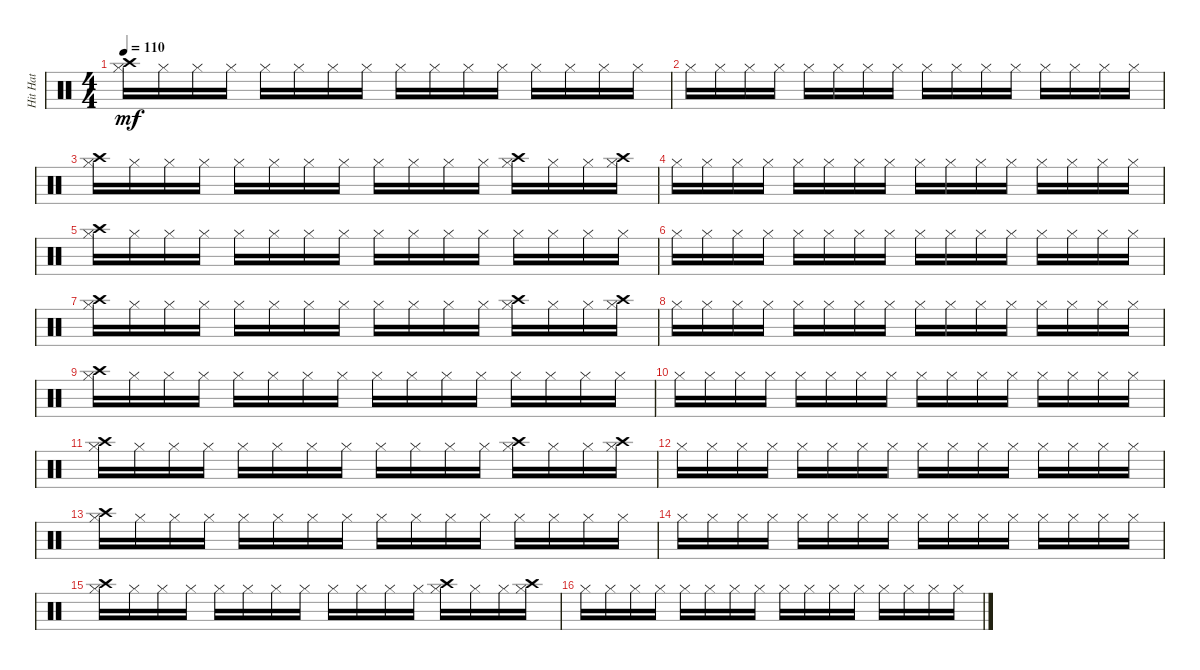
\track ("Hit Hat" "Hit Hat") {instrument percussion}
\staff {score}
\articulation defaults
\ts (4 4)
\tempo 110
\clef neutral
\ks c
("Hi-Hat (closed)" "Crash high (hit)").16{dy mf} "Hi-Hat (closed)".16 "Hi-Hat (closed)".16 "Hi-Hat (closed)".16 "Hi-Hat (closed)".16 "Hi-Hat (closed)".16 "Hi-Hat (closed)".16 "Hi-Hat (closed)".16 "Hi-Hat (closed)".16 "Hi-Hat (closed)".16 "Hi-Hat (closed)".16 "Hi-Hat (closed)".16 "Hi-Hat (closed)".16 "Hi-Hat (closed)".16 "Hi-Hat (closed)".16 "Hi-Hat (closed)".16 |
"Hi-Hat (closed)".16 "Hi-Hat (closed)".16 "Hi-Hat (closed)".16 "Hi-Hat (closed)".16 "Hi-Hat (closed)".16 "Hi-Hat (closed)".16 "Hi-Hat (closed)".16 "Hi-Hat (closed)".16 "Hi-Hat (closed)".16 "Hi-Hat (closed)".16 "Hi-Hat (closed)".16 "Hi-Hat (closed)".16 "Hi-Hat (closed)".16 "Hi-Hat (closed)".16 "Hi-Hat (closed)".16 "Hi-Hat (closed)".16 |
("Hi-Hat (closed)" "Crash high (hit)").16 "Hi-Hat (closed)".16 "Hi-Hat (closed)".16 "Hi-Hat (closed)".16 "Hi-Hat (closed)".16 "Hi-Hat (closed)".16 "Hi-Hat (closed)".16 "Hi-Hat (closed)".16 "Hi-Hat (closed)".16 "Hi-Hat (closed)".16 "Hi-Hat (closed)".16 "Hi-Hat (closed)".16 ("Hi-Hat (closed)" "Crash high (hit)").16 "Hi-Hat (closed)".16 "Hi-Hat (closed)".16 ("Hi-Hat (closed)" "Crash high (hit)").16 |
"Hi-Hat (closed)".16 "Hi-Hat (closed)".16 "Hi-Hat (closed)".16 "Hi-Hat (closed)".16 "Hi-Hat (closed)".16 "Hi-Hat (closed)".16 "Hi-Hat (closed)".16 "Hi-Hat (closed)".16 "Hi-Hat (closed)".16 "Hi-Hat (closed)".16 "Hi-Hat (closed)".16 "Hi-Hat (closed)".16 "Hi-Hat (closed)".16 "Hi-Hat (closed)".16 "Hi-Hat (closed)".16 "Hi-Hat (closed)".16 |
("Hi-Hat (closed)" "Crash high (hit)").16 "Hi-Hat (closed)".16 "Hi-Hat (closed)".16 "Hi-Hat (closed)".16 "Hi-Hat (closed)".16 "Hi-Hat (closed)".16 "Hi-Hat (closed)".16 "Hi-Hat (closed)".16 "Hi-Hat (closed)".16 "Hi-Hat (closed)".16 "Hi-Hat (closed)".16 "Hi-Hat (closed)".16 "Hi-Hat (closed)".16 "Hi-Hat (closed)".16 "Hi-Hat (closed)".16 "Hi-Hat (closed)".16 |
"Hi-Hat (closed)".16 "Hi-Hat (closed)".16 "Hi-Hat (closed)".16 "Hi-Hat (closed)".16 "Hi-Hat (closed)".16 "Hi-Hat (closed)".16 "Hi-Hat (closed)".16 "Hi-Hat (closed)".16 "Hi-Hat (closed)".16 "Hi-Hat (closed)".16 "Hi-Hat (closed)".16 "Hi-Hat (closed)".16 "Hi-Hat (closed)".16 "Hi-Hat (closed)".16 "Hi-Hat (closed)".16 "Hi-Hat (closed)".16 |
("Hi-Hat (closed)" "Crash high (hit)").16 "Hi-Hat (closed)".16 "Hi-Hat (closed)".16 "Hi-Hat (closed)".16 "Hi-Hat (closed)".16 "Hi-Hat (closed)".16 "Hi-Hat (closed)".16 "Hi-Hat (closed)".16 "Hi-Hat (closed)".16 "Hi-Hat (closed)".16 "Hi-Hat (closed)".16 "Hi-Hat (closed)".16 ("Hi-Hat (closed)" "Crash high (hit)").16 "Hi-Hat (closed)".16 "Hi-Hat (closed)".16 ("Hi-Hat (closed)" "Crash high (hit)").16 |
"Hi-Hat (closed)".16 "Hi-Hat (closed)".16 "Hi-Hat (closed)".16 "Hi-Hat (closed)".16 "Hi-Hat (closed)".16 "Hi-Hat (closed)".16 "Hi-Hat (closed)".16 "Hi-Hat (closed)".16 "Hi-Hat (closed)".16 "Hi-Hat (closed)".16 "Hi-Hat (closed)".16 "Hi-Hat (closed)".16 "Hi-Hat (closed)".16 "Hi-Hat (closed)".16 "Hi-Hat (closed)".16 "Hi-Hat (closed)".16 |
("Hi-Hat (closed)" "Crash high (hit)").16 "Hi-Hat (closed)".16 "Hi-Hat (closed)".16 "Hi-Hat (closed)".16 "Hi-Hat (closed)".16 "Hi-Hat (closed)".16 "Hi-Hat (closed)".16 "Hi-Hat (closed)".16 "Hi-Hat (closed)".16 "Hi-Hat (closed)".16 "Hi-Hat (closed)".16 "Hi-Hat (closed)".16 "Hi-Hat (closed)".16 "Hi-Hat (closed)".16 "Hi-Hat (closed)".16 "Hi-Hat (closed)".16 |
"Hi-Hat (closed)".16 "Hi-Hat (closed)".16 "Hi-Hat (closed)".16 "Hi-Hat (closed)".16 "Hi-Hat (closed)".16 "Hi-Hat (closed)".16 "Hi-Hat (closed)".16 "Hi-Hat (closed)".16 "Hi-Hat (closed)".16 "Hi-Hat (closed)".16 "Hi-Hat (closed)".16 "Hi-Hat (closed)".16 "Hi-Hat (closed)".16 "Hi-Hat (closed)".16 "Hi-Hat (closed)".16 "Hi-Hat (closed)".16 |
("Hi-Hat (closed)" "Crash high (hit)").16 "Hi-Hat (closed)".16 "Hi-Hat (closed)".16 "Hi-Hat (closed)".16 "Hi-Hat (closed)".16 "Hi-Hat (closed)".16 "Hi-Hat (closed)".16 "Hi-Hat (closed)".16 "Hi-Hat (closed)".16 "Hi-Hat (closed)".16 "Hi-Hat (closed)".16 "Hi-Hat (closed)".16 ("Hi-Hat (closed)" "Crash high (hit)").16 "Hi-Hat (closed)".16 "Hi-Hat (closed)".16 ("Hi-Hat (closed)" "Crash high (hit)").16 |
"Hi-Hat (closed)".16 "Hi-Hat (closed)".16 "Hi-Hat (closed)".16 "Hi-Hat (closed)".16 "Hi-Hat (closed)".16 "Hi-Hat (closed)".16 "Hi-Hat (closed)".16 "Hi-Hat (closed)".16 "Hi-Hat (closed)".16 "Hi-Hat (closed)".16 "Hi-Hat (closed)".16 "Hi-Hat (closed)".16 "Hi-Hat (closed)".16 "Hi-Hat (closed)".16 "Hi-Hat (closed)".16 "Hi-Hat (closed)".16 |
("Hi-Hat (closed)" "Crash high (hit)").16 "Hi-Hat (closed)".16 "Hi-Hat (closed)".16 "Hi-Hat (closed)".16 "Hi-Hat (closed)".16 "Hi-Hat (closed)".16 "Hi-Hat (closed)".16 "Hi-Hat (closed)".16 "Hi-Hat (closed)".16 "Hi-Hat (closed)".16 "Hi-Hat (closed)".16 "Hi-Hat (closed)".16 "Hi-Hat (closed)".16 "Hi-Hat (closed)".16 "Hi-Hat (closed)".16 "Hi-Hat (closed)".16 |
"Hi-Hat (closed)".16 "Hi-Hat (closed)".16 "Hi-Hat (closed)".16 "Hi-Hat (closed)".16 "Hi-Hat (closed)".16 "Hi-Hat (closed)".16 "Hi-Hat (closed)".16 "Hi-Hat (closed)".16 "Hi-Hat (closed)".16 "Hi-Hat (closed)".16 "Hi-Hat (closed)".16 "Hi-Hat (closed)".16 "Hi-Hat (closed)".16 "Hi-Hat (closed)".16 "Hi-Hat (closed)".16 "Hi-Hat (closed)".16 |
("Hi-Hat (closed)" "Crash high (hit)").16 "Hi-Hat (closed)".16 "Hi-Hat (closed)".16 "Hi-Hat (closed)".16 "Hi-Hat (closed)".16 "Hi-Hat (closed)".16 "Hi-Hat (closed)".16 "Hi-Hat (closed)".16 "Hi-Hat (closed)".16 "Hi-Hat (closed)".16 "Hi-Hat (closed)".16 "Hi-Hat (closed)".16 ("Hi-Hat (closed)" "Crash high (hit)").16 "Hi-Hat (closed)".16 "Hi-Hat (closed)".16 ("Hi-Hat (closed)" "Crash high (hit)").16 |
"Hi-Hat (closed)".16 "Hi-Hat (closed)".16 "Hi-Hat (closed)".16 "Hi-Hat (closed)".16 "Hi-Hat (closed)".16 "Hi-Hat (closed)".16 "Hi-Hat (closed)".16 "Hi-Hat (closed)".16 "Hi-Hat (closed)".16 "Hi-Hat (closed)".16 "Hi-Hat (closed)".16 "Hi-Hat (closed)".16 "Hi-Hat (closed)".16 "Hi-Hat (closed)".16 "Hi-Hat (closed)".16 "Hi-Hat (closed)".16
